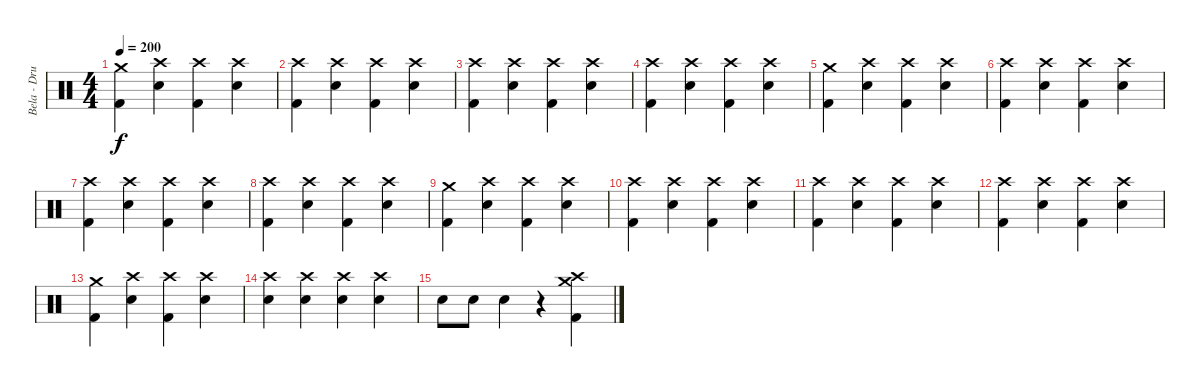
\track ("Bela - Drums" "Bela - Dru") {instrument percussion}
\staff {score}
\articulation defaults
\ts (4 4)
\tempo 200
\clef neutral
\ks c
("Crash medium (hit)" "Kick (hit) 2").4{dy f} ("Crash high (hit)" "Snare (hit) 2").4 ("Crash high (hit)" "Kick (hit) 2").4 ("Crash high (hit)" "Snare (hit) 2").4 |
("Crash high (hit)" "Kick (hit) 2").4 ("Crash high (hit)" "Snare (hit) 2").4 ("Crash high (hit)" "Kick (hit) 2").4 ("Crash high (hit)" "Snare (hit) 2").4 |
("Crash high (hit)" "Kick (hit) 2").4 ("Crash high (hit)" "Snare (hit) 2").4 ("Crash high (hit)" "Kick (hit) 2").4 ("Crash high (hit)" "Snare (hit) 2").4 |
("Crash high (hit)" "Kick (hit) 2").4 ("Crash high (hit)" "Snare (hit) 2").4 ("Crash high (hit)" "Kick (hit) 2").4 ("Crash high (hit)" "Snare (hit) 2").4 |
("Crash medium (hit)" "Kick (hit) 2").4 ("Crash high (hit)" "Snare (hit) 2").4 ("Crash high (hit)" "Kick (hit) 2").4 ("Crash high (hit)" "Snare (hit) 2").4 |
("Crash high (hit)" "Kick (hit) 2").4 ("Crash high (hit)" "Snare (hit) 2").4 ("Crash high (hit)" "Kick (hit) 2").4 ("Crash high (hit)" "Snare (hit) 2").4 |
("Crash high (hit)" "Kick (hit) 2").4 ("Crash high (hit)" "Snare (hit) 2").4 ("Crash high (hit)" "Kick (hit) 2").4 ("Crash high (hit)" "Snare (hit) 2").4 |
("Crash high (hit)" "Kick (hit) 2").4 ("Crash high (hit)" "Snare (hit) 2").4 ("Crash high (hit)" "Kick (hit) 2").4 ("Crash high (hit)" "Snare (hit) 2").4 |
("Crash medium (hit)" "Kick (hit) 2").4 ("Crash high (hit)" "Snare (hit) 2").4 ("Crash high (hit)" "Kick (hit) 2").4 ("Crash high (hit)" "Snare (hit) 2").4 |
("Crash high (hit)" "Kick (hit) 2").4 ("Crash high (hit)" "Snare (hit) 2").4 ("Crash high (hit)" "Kick (hit) 2").4 ("Crash high (hit)" "Snare (hit) 2").4 |
("Crash high (hit)" "Kick (hit) 2").4 ("Crash high (hit)" "Snare (hit) 2").4 ("Crash high (hit)" "Kick (hit) 2").4 ("Crash high (hit)" "Snare (hit) 2").4 |
("Crash high (hit)" "Kick (hit) 2").4 ("Crash high (hit)" "Snare (hit) 2").4 ("Crash high (hit)" "Kick (hit) 2").4 ("Crash high (hit)" "Snare (hit) 2").4 |
("Crash medium (hit)" "Kick (hit) 2").4 ("Crash high (hit)" "Snare (hit) 2").4 ("Crash high (hit)" "Kick (hit) 2").4 ("Crash high (hit)" "Snare (hit) 2").4 |
("Crash high (hit)" "Snare (hit) 2").4 ("Crash high (hit)" "Snare (hit) 2").4 ("Crash high (hit)" "Snare (hit) 2").4 ("Crash high (hit)" "Snare (hit) 2").4 |
"Snare (hit) 2".8 "Snare (hit) 2".8 "Snare (hit) 2".4 r.4 ("Crash high (hit)" "Crash medium (hit)" "Kick (hit) 2").4
